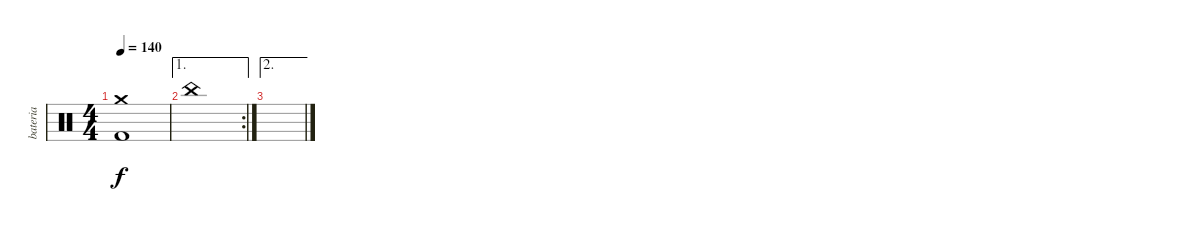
\track ("bateria" "bateria") {mute instrument percussion}
\staff {score}
\articulation defaults
\ts (4 4)
\tempo 140
\clef neutral
\ks c
("Kick (hit) 2" "Crash medium (hit)").1{dy f} |
\ae 1
\rc 2 "China (hit)".1
|
\ae 2
